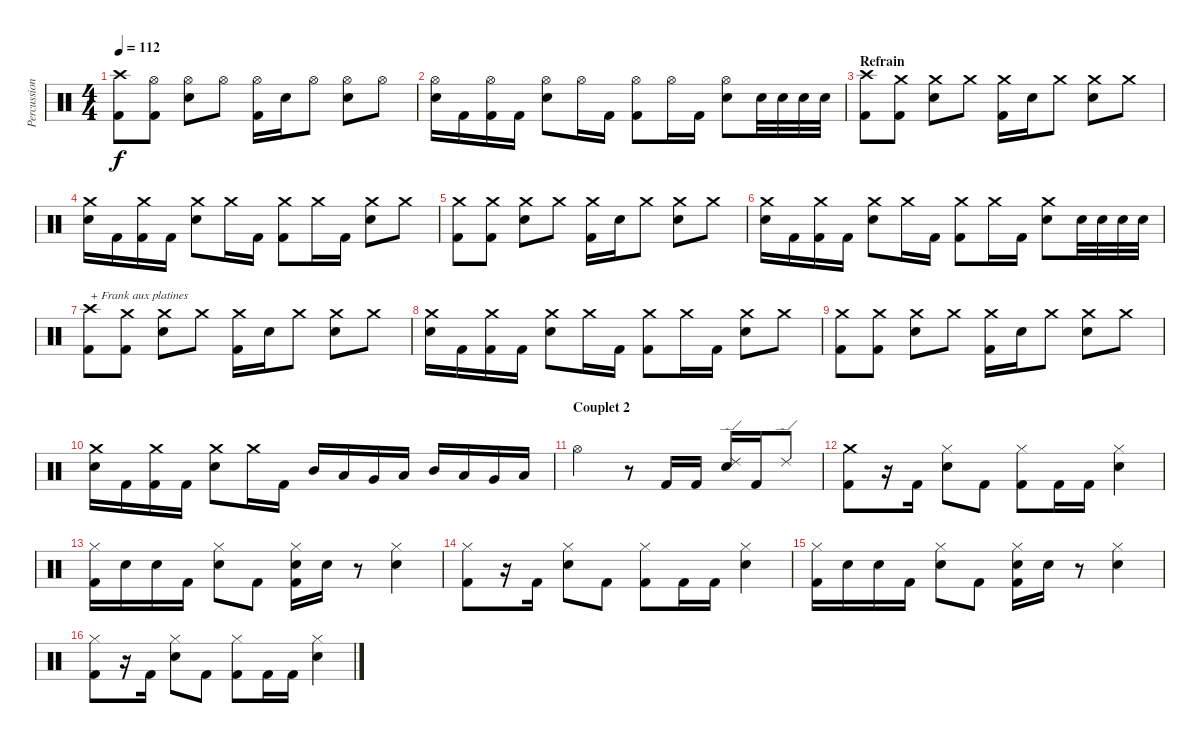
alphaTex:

\track ("Percussions" "Percussion") {instrument percussion}
\staff {score}
\articulation defaults
\ts (4 4)
\tempo 112
\clef neutral
\ks c
("Crash high (hit)" "Kick (hit) 2").8{dy f} ("Hi-Hat (open)" "Kick (hit) 2").8 ("Hi-Hat (open)" "Electric Snare (hit)").8 "Hi-Hat (open)".8 ("Hi-Hat (open)" "Kick (hit) 2").16 "Electric Snare (hit)".16 "Hi-Hat (open)".8 ("Hi-Hat (open)" "Electric Snare (hit)").8 "Hi-Hat (open)".8 |
("Hi-Hat (open)" "Electric Snare (hit)").16 "Kick (hit) 2".16 ("Hi-Hat (open)" "Kick (hit) 2").16 "Kick (hit) 2".16 ("Hi-Hat (open)" "Electric Snare (hit)").8 "Hi-Hat (open)".16 "Kick (hit) 2".16 ("Hi-Hat (open)" "Kick (hit) 2").8 "Hi-Hat (open)".16 "Kick (hit) 2".16 ("Hi-Hat (open)" "Electric Snare (hit)").8 "Electric Snare (hit)".32 "Electric Snare (hit)".32 "Electric Snare (hit)".32 "Electric Snare (hit)".32 |
\section ("" "Refrain")
("Crash high (hit)" "Kick (hit) 2").8 ("Crash medium (hit)" "Kick (hit) 2").8 ("Crash medium (hit)" "Electric Snare (hit)").8 "Crash medium (hit)".8 ("Crash medium (hit)" "Kick (hit) 2").16 "Electric Snare (hit)".16 "Crash medium (hit)".8 ("Crash medium (hit)" "Electric Snare (hit)").8 "Crash medium (hit)".8 |
("Crash medium (hit)" "Electric Snare (hit)").16 "Kick (hit) 2".16 ("Crash medium (hit)" "Kick (hit) 2").16 "Kick (hit) 2".16 ("Crash medium (hit)" "Electric Snare (hit)").8 "Crash medium (hit)".16 "Kick (hit) 2".16 ("Crash medium (hit)" "Kick (hit) 2").8 "Crash medium (hit)".16 "Kick (hit) 2".16 ("Crash medium (hit)" "Electric Snare (hit)").8 "Crash medium (hit)".8 |
("Crash medium (hit)" "Kick (hit) 2").8 ("Crash medium (hit)" "Kick (hit) 2").8 ("Crash medium (hit)" "Electric Snare (hit)").8 "Crash medium (hit)".8 ("Crash medium (hit)" "Kick (hit) 2").16 "Electric Snare (hit)".16 "Crash medium (hit)".8 ("Crash medium (hit)" "Electric Snare (hit)").8 "Crash medium (hit)".8 |
("Crash medium (hit)" "Electric Snare (hit)").16 "Kick (hit) 2".16 ("Crash medium (hit)" "Kick (hit) 2").16 "Kick (hit) 2".16 ("Crash medium (hit)" "Electric Snare (hit)").8 "Crash medium (hit)".16 "Kick (hit) 2".16 ("Crash medium (hit)" "Kick (hit) 2").8 "Crash medium (hit)".16 "Kick (hit) 2".16 ("Crash medium (hit)" "Electric Snare (hit)").8 "Electric Snare (hit)".32 "Electric Snare (hit)".32 "Electric Snare (hit)".32 "Electric Snare (hit)".32 |
("Crash high (hit)" "Kick (hit) 2").8{txt "+ Frank aux platines"} ("Crash medium (hit)" "Kick (hit) 2").8 ("Crash medium (hit)" "Electric Snare (hit)").8 "Crash medium (hit)".8 ("Crash medium (hit)" "Kick (hit) 2").16 "Electric Snare (hit)".16 "Crash medium (hit)".8 ("Crash medium (hit)" "Electric Snare (hit)").8 "Crash medium (hit)".8 |
("Crash medium (hit)" "Electric Snare (hit)").16 "Kick (hit) 2".16 ("Crash medium (hit)" "Kick (hit) 2").16 "Kick (hit) 2".16 ("Crash medium (hit)" "Electric Snare (hit)").8 "Crash medium (hit)".16 "Kick (hit) 2".16 ("Crash medium (hit)" "Kick (hit) 2").8 "Crash medium (hit)".16 "Kick (hit) 2".16 ("Crash medium (hit)" "Electric Snare (hit)").8 "Crash medium (hit)".8 |
("Crash medium (hit)" "Kick (hit) 2").8 ("Crash medium (hit)" "Kick (hit) 2").8 ("Crash medium (hit)" "Electric Snare (hit)").8 "Crash medium (hit)".8 ("Crash medium (hit)" "Kick (hit) 2").16 "Electric Snare (hit)".16 "Crash medium (hit)".8 ("Crash medium (hit)" "Electric Snare (hit)").8 "Crash medium (hit)".8 |
("Crash medium (hit)" "Electric Snare (hit)").16 "Kick (hit) 2".16 ("Crash medium (hit)" "Kick (hit) 2").16 "Kick (hit) 2".16 ("Crash medium (hit)" "Electric Snare (hit)").8 "Crash medium (hit)".16 "Kick (hit) 2".16 "Mid Tom (hit)".16 "Low Tom (hit)".16 "Very Low Tom (hit)".16 "Low Floor Tom (hit)".16 "Mid Tom (hit)".16 "Low Tom (hit)".16 "Very Low Tom (hit)".16 "Low Floor Tom (hit)".16 |
\section ("" "Couplet 2")
"Hi-Hat (open)".2 r.8 "Kick (hit) 2".16 "Kick (hit) 2".16 ("Ride (edge) 2" "Electric Snare (hit)").16 "Kick (hit) 2".16 "Ride (edge) 2".8 |
("Crash medium (hit)" "Kick (hit) 2").8 r.16 "Kick (hit) 2".16 ("Hi-Hat (closed)" "Electric Snare (hit)").8 "Kick (hit) 2".8 ("Hi-Hat (closed)" "Kick (hit) 2").8 "Kick (hit) 2".16 "Kick (hit) 2".16 ("Hi-Hat (closed)" "Electric Snare (hit)").4 |
("Hi-Hat (closed)" "Kick (hit) 2").16 "Electric Snare (hit)".16 "Electric Snare (hit)".16 "Kick (hit) 2".16 ("Hi-Hat (closed)" "Electric Snare (hit)").8 "Kick (hit) 2".8 ("Hi-Hat (closed)" "Electric Snare (hit)" "Kick (hit) 2").16 "Electric Snare (hit)".16 r.8 ("Hi-Hat (closed)" "Electric Snare (hit)").4 |
("Hi-Hat (closed)" "Kick (hit) 2").8 r.16 "Kick (hit) 2".16 ("Hi-Hat (closed)" "Electric Snare (hit)").8 "Kick (hit) 2".8 ("Hi-Hat (closed)" "Kick (hit) 2").8 "Kick (hit) 2".16 "Kick (hit) 2".16 ("Hi-Hat (closed)" "Electric Snare (hit)").4 |
("Hi-Hat (closed)" "Kick (hit) 2").16 "Electric Snare (hit)".16 "Electric Snare (hit)".16 "Kick (hit) 2".16 ("Hi-Hat (closed)" "Electric Snare (hit)").8 "Kick (hit) 2".8 ("Hi-Hat (closed)" "Electric Snare (hit)" "Kick (hit) 2").16 "Electric Snare (hit)".16 r.8 ("Hi-Hat (closed)" "Electric Snare (hit)").4 |
("Hi-Hat (closed)" "Kick (hit) 2").8 r.16 "Kick (hit) 2".16 ("Hi-Hat (closed)" "Electric Snare (hit)").8 "Kick (hit) 2".8 ("Hi-Hat (closed)" "Kick (hit) 2").8 "Kick (hit) 2".16 "Kick (hit) 2".16 ("Hi-Hat (closed)" "Electric Snare (hit)").4
